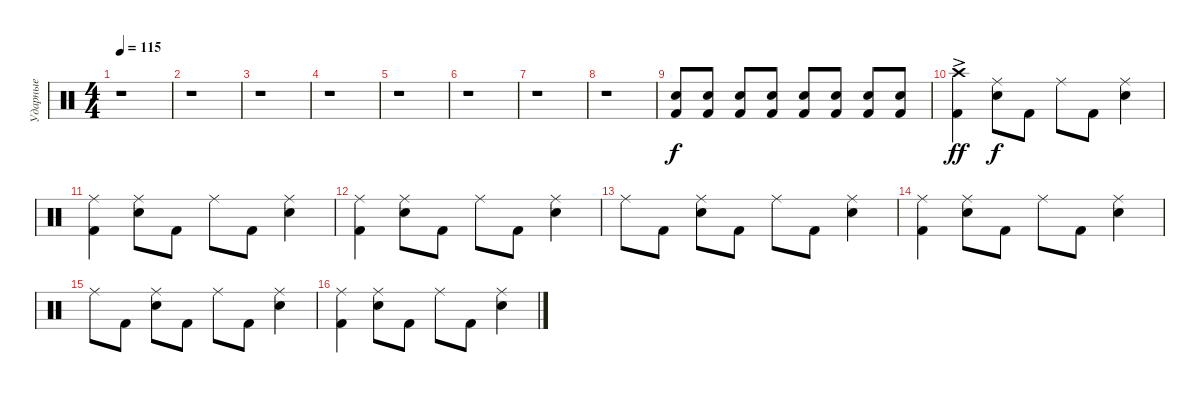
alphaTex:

\track ("Ударные" "Ударные") {instrument percussion}
\staff {score}
\articulation defaults
\ts (4 4)
\tempo 115
\clef neutral
\ks c
r.1{dy f} |
r.1 |
r.1 |
r.1 |
r.1 |
r.1 |
r.1 |
r.1 |
("Kick (hit) 2" "Snare (hit) 2").8{volume 3} ("Kick (hit) 2" "Snare (hit) 2").8{volume 4} ("Kick (hit) 2" "Snare (hit) 2").8{volume 5} ("Kick (hit) 2" "Snare (hit) 2").8{volume 7} ("Kick (hit) 2" "Snare (hit) 2").8{volume 9} ("Kick (hit) 2" "Snare (hit) 2").8 ("Kick (hit) 2" "Snare (hit) 2").8 ("Kick (hit) 2" "Snare (hit) 2").8 |
("Kick (hit) 2" "Crash high (hit)"{ac}).4{dy ff} ("Snare (hit) 2" "Ride (middle)").8{dy f} "Kick (hit) 2".8 "Ride (middle)".8 "Kick (hit) 2".8 ("Snare (hit) 2" "Ride (middle)").4 |
("Kick (hit) 2" "Ride (middle)").4 ("Snare (hit) 2" "Ride (middle)").8 "Kick (hit) 2".8 "Ride (middle)".8 "Kick (hit) 2".8 ("Snare (hit) 2" "Ride (middle)").4 |
("Kick (hit) 2" "Ride (middle)").4 ("Snare (hit) 2" "Ride (middle)").8 "Kick (hit) 2".8 "Ride (middle)".8 "Kick (hit) 2".8 ("Snare (hit) 2" "Ride (middle)").4 |
"Ride (middle)".8 "Kick (hit) 2".8 ("Snare (hit) 2" "Ride (middle)").8 "Kick (hit) 2".8 "Ride (middle)".8 "Kick (hit) 2".8 ("Snare (hit) 2" "Ride (middle)").4 |
("Kick (hit) 2" "Ride (middle)").4 ("Snare (hit) 2" "Ride (middle)").8 "Kick (hit) 2".8 "Ride (middle)".8 "Kick (hit) 2".8 ("Snare (hit) 2" "Ride (middle)").4 |
"Ride (middle)".8 "Kick (hit) 2".8 ("Snare (hit) 2" "Ride (middle)").8 "Kick (hit) 2".8 "Ride (middle)".8 "Kick (hit) 2".8 ("Snare (hit) 2" "Ride (middle)").4 |
("Kick (hit) 2" "Ride (middle)").4 ("Snare (hit) 2" "Ride (middle)").8 "Kick (hit) 2".8 "Ride (middle)".8 "Kick (hit) 2".8 ("Snare (hit) 2" "Ride (middle)").4
